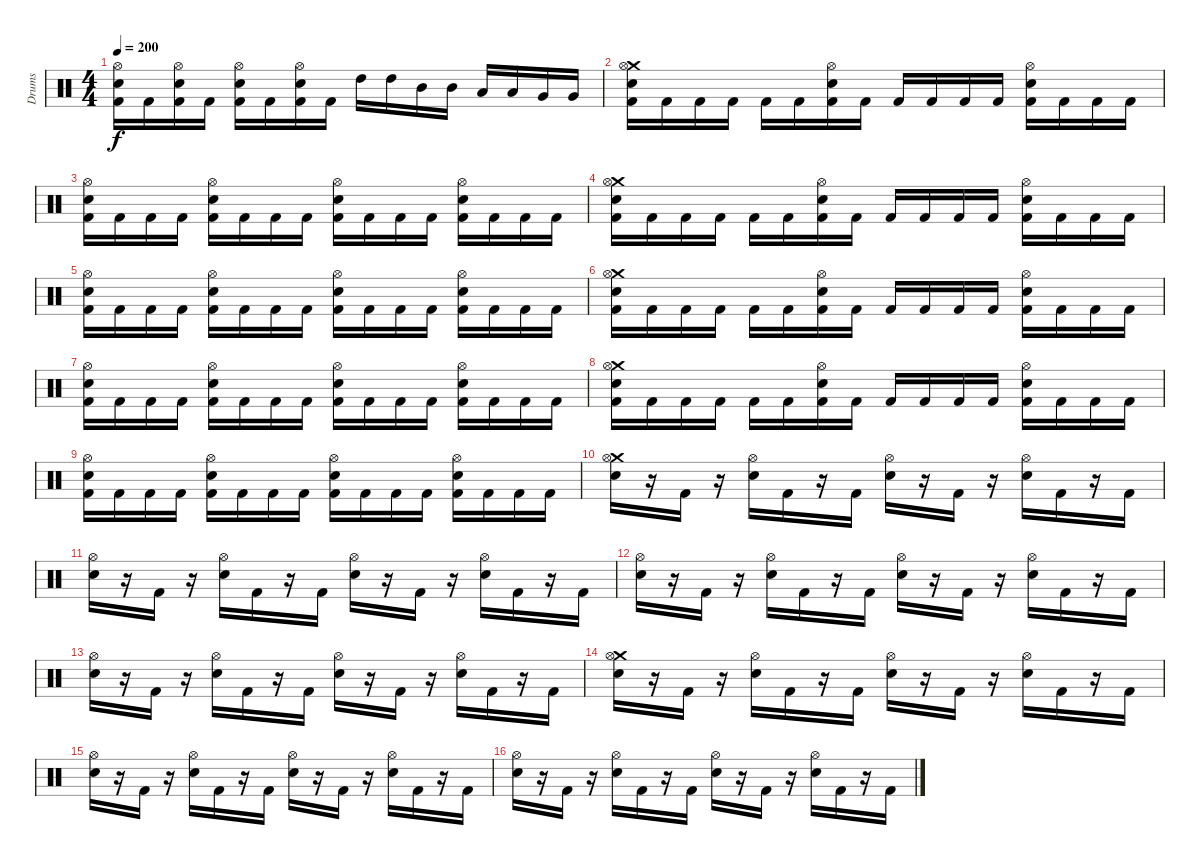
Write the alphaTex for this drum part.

\track ("Drums" "Drums") {instrument percussion}
\staff {score}
\articulation defaults
\ts (4 4)
\tempo 200
\clef neutral
\ks c
("Hi-Hat (open)" "Electric Snare (hit)" "Kick (hit) 2").16{dy f} "Kick (hit) 2".16 ("Hi-Hat (open)" "Electric Snare (hit)" "Kick (hit) 2").16 "Kick (hit) 2".16 ("Hi-Hat (open)" "Electric Snare (hit)" "Kick (hit) 2").16 "Kick (hit) 2".16 ("Hi-Hat (open)" "Electric Snare (hit)" "Kick (hit) 2").16 "Kick (hit) 2".16 "High Tom (hit)".16 "High Tom (hit)".16 "Mid Tom (hit)".16 "Mid Tom (hit)".16 "Low Tom (hit)".16 "Low Tom (hit)".16 "Very Low Tom (hit)".16 "Very Low Tom (hit)".16 |
("Crash medium (hit)" "Hi-Hat (open)" "Electric Snare (hit)" "Kick (hit) 2").16 "Kick (hit) 2".16 "Kick (hit) 2".16 "Kick (hit) 2".16 "Kick (hit) 2".16 "Kick (hit) 2".16 ("Hi-Hat (open)" "Electric Snare (hit)" "Kick (hit) 2").16 "Kick (hit) 2".16 "Kick (hit) 2".16 "Kick (hit) 2".16 "Kick (hit) 2".16 "Kick (hit) 2".16 ("Hi-Hat (open)" "Electric Snare (hit)" "Kick (hit) 2").16 "Kick (hit) 2".16 "Kick (hit) 2".16 "Kick (hit) 2".16 |
("Hi-Hat (open)" "Electric Snare (hit)" "Kick (hit) 2").16 "Kick (hit) 2".16 "Kick (hit) 2".16 "Kick (hit) 2".16 ("Hi-Hat (open)" "Electric Snare (hit)" "Kick (hit) 2").16 "Kick (hit) 2".16 "Kick (hit) 2".16 "Kick (hit) 2".16 ("Hi-Hat (open)" "Electric Snare (hit)" "Kick (hit) 2").16 "Kick (hit) 2".16 "Kick (hit) 2".16 "Kick (hit) 2".16 ("Hi-Hat (open)" "Electric Snare (hit)" "Kick (hit) 2").16 "Kick (hit) 2".16 "Kick (hit) 2".16 "Kick (hit) 2".16 |
("Crash medium (hit)" "Hi-Hat (open)" "Electric Snare (hit)" "Kick (hit) 2").16 "Kick (hit) 2".16 "Kick (hit) 2".16 "Kick (hit) 2".16 "Kick (hit) 2".16 "Kick (hit) 2".16 ("Hi-Hat (open)" "Electric Snare (hit)" "Kick (hit) 2").16 "Kick (hit) 2".16 "Kick (hit) 2".16 "Kick (hit) 2".16 "Kick (hit) 2".16 "Kick (hit) 2".16 ("Hi-Hat (open)" "Electric Snare (hit)" "Kick (hit) 2").16 "Kick (hit) 2".16 "Kick (hit) 2".16 "Kick (hit) 2".16 |
("Hi-Hat (open)" "Electric Snare (hit)" "Kick (hit) 2").16 "Kick (hit) 2".16 "Kick (hit) 2".16 "Kick (hit) 2".16 ("Hi-Hat (open)" "Electric Snare (hit)" "Kick (hit) 2").16 "Kick (hit) 2".16 "Kick (hit) 2".16 "Kick (hit) 2".16 ("Hi-Hat (open)" "Electric Snare (hit)" "Kick (hit) 2").16 "Kick (hit) 2".16 "Kick (hit) 2".16 "Kick (hit) 2".16 ("Hi-Hat (open)" "Electric Snare (hit)" "Kick (hit) 2").16 "Kick (hit) 2".16 "Kick (hit) 2".16 "Kick (hit) 2".16 |
("Crash medium (hit)" "Hi-Hat (open)" "Electric Snare (hit)" "Kick (hit) 2").16 "Kick (hit) 2".16 "Kick (hit) 2".16 "Kick (hit) 2".16 "Kick (hit) 2".16 "Kick (hit) 2".16 ("Hi-Hat (open)" "Electric Snare (hit)" "Kick (hit) 2").16 "Kick (hit) 2".16 "Kick (hit) 2".16 "Kick (hit) 2".16 "Kick (hit) 2".16 "Kick (hit) 2".16 ("Hi-Hat (open)" "Electric Snare (hit)" "Kick (hit) 2").16 "Kick (hit) 2".16 "Kick (hit) 2".16 "Kick (hit) 2".16 |
("Hi-Hat (open)" "Electric Snare (hit)" "Kick (hit) 2").16 "Kick (hit) 2".16 "Kick (hit) 2".16 "Kick (hit) 2".16 ("Hi-Hat (open)" "Electric Snare (hit)" "Kick (hit) 2").16 "Kick (hit) 2".16 "Kick (hit) 2".16 "Kick (hit) 2".16 ("Hi-Hat (open)" "Electric Snare (hit)" "Kick (hit) 2").16 "Kick (hit) 2".16 "Kick (hit) 2".16 "Kick (hit) 2".16 ("Hi-Hat (open)" "Electric Snare (hit)" "Kick (hit) 2").16 "Kick (hit) 2".16 "Kick (hit) 2".16 "Kick (hit) 2".16 |
("Crash medium (hit)" "Hi-Hat (open)" "Electric Snare (hit)" "Kick (hit) 2").16 "Kick (hit) 2".16 "Kick (hit) 2".16 "Kick (hit) 2".16 "Kick (hit) 2".16 "Kick (hit) 2".16 ("Hi-Hat (open)" "Electric Snare (hit)" "Kick (hit) 2").16 "Kick (hit) 2".16 "Kick (hit) 2".16 "Kick (hit) 2".16 "Kick (hit) 2".16 "Kick (hit) 2".16 ("Hi-Hat (open)" "Electric Snare (hit)" "Kick (hit) 2").16 "Kick (hit) 2".16 "Kick (hit) 2".16 "Kick (hit) 2".16 |
("Hi-Hat (open)" "Electric Snare (hit)" "Kick (hit) 2").16 "Kick (hit) 2".16 "Kick (hit) 2".16 "Kick (hit) 2".16 ("Hi-Hat (open)" "Electric Snare (hit)" "Kick (hit) 2").16 "Kick (hit) 2".16 "Kick (hit) 2".16 "Kick (hit) 2".16 ("Hi-Hat (open)" "Electric Snare (hit)" "Kick (hit) 2").16 "Kick (hit) 2".16 "Kick (hit) 2".16 "Kick (hit) 2".16 ("Hi-Hat (open)" "Electric Snare (hit)" "Kick (hit) 2").16 "Kick (hit) 2".16 "Kick (hit) 2".16 "Kick (hit) 2".16 |
("Crash medium (hit)" "Hi-Hat (open)" "Electric Snare (hit)").16 r.16 "Kick (hit) 2".16 r.16 ("Hi-Hat (open)" "Electric Snare (hit)").16 "Kick (hit) 2".16 r.16 "Kick (hit) 2".16 ("Hi-Hat (open)" "Electric Snare (hit)").16 r.16 "Kick (hit) 2".16 r.16 ("Hi-Hat (open)" "Electric Snare (hit)").16 "Kick (hit) 2".16 r.16 "Kick (hit) 2".16 |
("Hi-Hat (open)" "Electric Snare (hit)").16 r.16 "Kick (hit) 2".16 r.16 ("Hi-Hat (open)" "Electric Snare (hit)").16 "Kick (hit) 2".16 r.16 "Kick (hit) 2".16 ("Hi-Hat (open)" "Electric Snare (hit)").16 r.16 "Kick (hit) 2".16 r.16 ("Hi-Hat (open)" "Electric Snare (hit)").16 "Kick (hit) 2".16 r.16 "Kick (hit) 2".16 |
("Hi-Hat (open)" "Electric Snare (hit)").16 r.16 "Kick (hit) 2".16 r.16 ("Hi-Hat (open)" "Electric Snare (hit)").16 "Kick (hit) 2".16 r.16 "Kick (hit) 2".16 ("Hi-Hat (open)" "Electric Snare (hit)").16 r.16 "Kick (hit) 2".16 r.16 ("Hi-Hat (open)" "Electric Snare (hit)").16 "Kick (hit) 2".16 r.16 "Kick (hit) 2".16 |
("Hi-Hat (open)" "Electric Snare (hit)").16 r.16 "Kick (hit) 2".16 r.16 ("Hi-Hat (open)" "Electric Snare (hit)").16 "Kick (hit) 2".16 r.16 "Kick (hit) 2".16 ("Hi-Hat (open)" "Electric Snare (hit)").16 r.16 "Kick (hit) 2".16 r.16 ("Hi-Hat (open)" "Electric Snare (hit)").16 "Kick (hit) 2".16 r.16 "Kick (hit) 2".16 |
("Crash medium (hit)" "Hi-Hat (open)" "Electric Snare (hit)").16 r.16 "Kick (hit) 2".16 r.16 ("Hi-Hat (open)" "Electric Snare (hit)").16 "Kick (hit) 2".16 r.16 "Kick (hit) 2".16 ("Hi-Hat (open)" "Electric Snare (hit)").16 r.16 "Kick (hit) 2".16 r.16 ("Hi-Hat (open)" "Electric Snare (hit)").16 "Kick (hit) 2".16 r.16 "Kick (hit) 2".16 |
("Hi-Hat (open)" "Electric Snare (hit)").16 r.16 "Kick (hit) 2".16 r.16 ("Hi-Hat (open)" "Electric Snare (hit)").16 "Kick (hit) 2".16 r.16 "Kick (hit) 2".16 ("Hi-Hat (open)" "Electric Snare (hit)").16 r.16 "Kick (hit) 2".16 r.16 ("Hi-Hat (open)" "Electric Snare (hit)").16 "Kick (hit) 2".16 r.16 "Kick (hit) 2".16 |
("Hi-Hat (open)" "Electric Snare (hit)").16 r.16 "Kick (hit) 2".16 r.16 ("Hi-Hat (open)" "Electric Snare (hit)").16 "Kick (hit) 2".16 r.16 "Kick (hit) 2".16 ("Hi-Hat (open)" "Electric Snare (hit)").16 r.16 "Kick (hit) 2".16 r.16 ("Hi-Hat (open)" "Electric Snare (hit)").16 "Kick (hit) 2".16 r.16 "Kick (hit) 2".16
